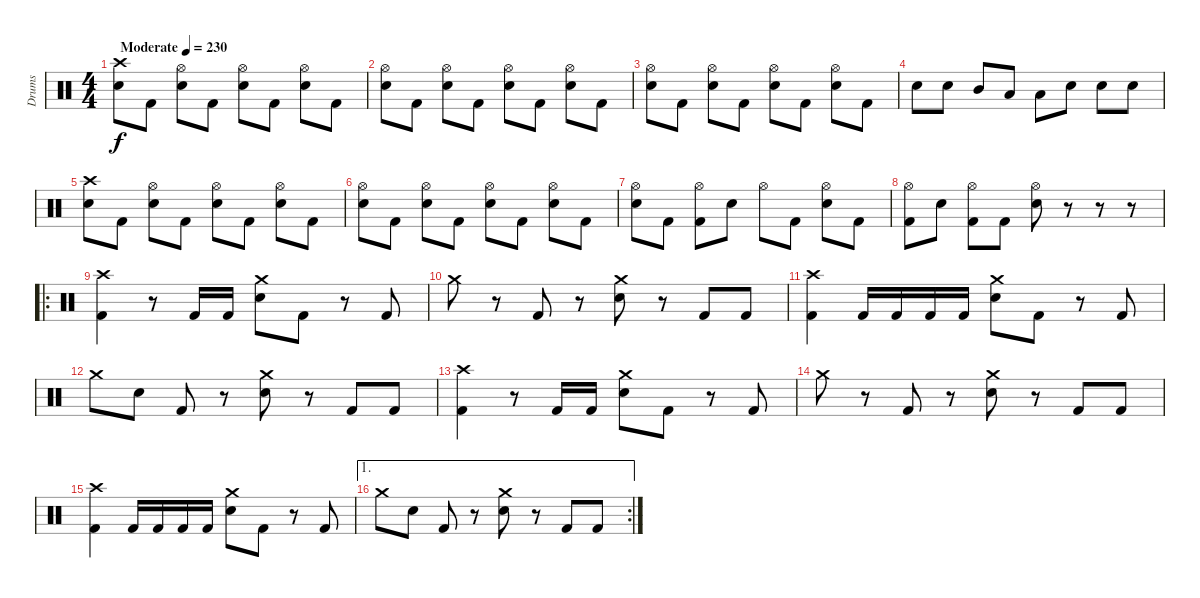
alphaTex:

\track ("Drums" "Drums") {instrument percussion}
\staff {score}
\articulation defaults
\ts (4 4)
\tempo (230 "Moderate")
\clef neutral
\ks c
("Electric Snare (hit)" "Crash high (hit)").8{dy f} "Kick (hit) 2".8 ("Electric Snare (hit)" "Hi-Hat (open)").8 "Kick (hit) 2".8 ("Electric Snare (hit)" "Hi-Hat (open)").8 "Kick (hit) 2".8 ("Electric Snare (hit)" "Hi-Hat (open)").8 "Kick (hit) 2".8 |
("Electric Snare (hit)" "Hi-Hat (open)").8 "Kick (hit) 2".8 ("Electric Snare (hit)" "Hi-Hat (open)").8 "Kick (hit) 2".8 ("Electric Snare (hit)" "Hi-Hat (open)").8 "Kick (hit) 2".8 ("Electric Snare (hit)" "Hi-Hat (open)").8 "Kick (hit) 2".8 |
("Electric Snare (hit)" "Hi-Hat (open)").8 "Kick (hit) 2".8 ("Electric Snare (hit)" "Hi-Hat (open)").8 "Kick (hit) 2".8 ("Electric Snare (hit)" "Hi-Hat (open)").8 "Kick (hit) 2".8 ("Electric Snare (hit)" "Hi-Hat (open)").8 "Kick (hit) 2".8 |
"Electric Snare (hit)".8 "Electric Snare (hit)".8 "Mid Tom (hit)".8 "Low Tom (hit)".8 "Low Tom (hit)".8 "Electric Snare (hit)".8 "Electric Snare (hit)".8 "Electric Snare (hit)".8 |
("Electric Snare (hit)" "Crash high (hit)").8 "Kick (hit) 2".8 ("Electric Snare (hit)" "Hi-Hat (open)").8 "Kick (hit) 2".8 ("Electric Snare (hit)" "Hi-Hat (open)").8 "Kick (hit) 2".8 ("Electric Snare (hit)" "Hi-Hat (open)").8 "Kick (hit) 2".8 |
("Electric Snare (hit)" "Hi-Hat (open)").8 "Kick (hit) 2".8 ("Electric Snare (hit)" "Hi-Hat (open)").8 "Kick (hit) 2".8 ("Electric Snare (hit)" "Hi-Hat (open)").8 "Kick (hit) 2".8 ("Electric Snare (hit)" "Hi-Hat (open)").8 "Kick (hit) 2".8 |
("Electric Snare (hit)" "Hi-Hat (open)").8 "Kick (hit) 2".8 ("Kick (hit) 2" "Hi-Hat (open)").8 "Electric Snare (hit)".8 "Hi-Hat (open)".8 "Kick (hit) 2".8 ("Electric Snare (hit)" "Hi-Hat (open)").8 "Kick (hit) 2".8 |
("Kick (hit) 2" "Hi-Hat (open)").8 "Electric Snare (hit)".8 ("Kick (hit) 2" "Hi-Hat (open)").8 "Kick (hit) 2".8 ("Electric Snare (hit)" "Hi-Hat (open)").8 r.8 r.8 r.8 |
\ro
("Kick (hit) 2" "Crash high (hit)").4 r.8 "Kick (hit) 2".16 "Kick (hit) 2".16 ("Electric Snare (hit)" "Crash medium (hit)").8 "Kick (hit) 2".8 r.8 "Kick (hit) 2".8 |
"Crash medium (hit)".8 r.8 "Kick (hit) 2".8 r.8 ("Electric Snare (hit)" "Crash medium (hit)").8 r.8 "Kick (hit) 2".8 "Kick (hit) 2".8 |
("Kick (hit) 2" "Crash high (hit)").4 "Kick (hit) 2".16 "Kick (hit) 2".16 "Kick (hit) 2".16 "Kick (hit) 2".16 ("Electric Snare (hit)" "Crash medium (hit)").8 "Kick (hit) 2".8 r.8 "Kick (hit) 2".8 |
"Crash medium (hit)".8 "Electric Snare (hit)".8 "Kick (hit) 2".8 r.8 ("Electric Snare (hit)" "Crash medium (hit)").8 r.8 "Kick (hit) 2".8 "Kick (hit) 2".8 |
("Kick (hit) 2" "Crash high (hit)").4 r.8 "Kick (hit) 2".16 "Kick (hit) 2".16 ("Electric Snare (hit)" "Crash medium (hit)").8 "Kick (hit) 2".8 r.8 "Kick (hit) 2".8 |
"Crash medium (hit)".8 r.8 "Kick (hit) 2".8 r.8 ("Electric Snare (hit)" "Crash medium (hit)").8 r.8 "Kick (hit) 2".8 "Kick (hit) 2".8 |
("Kick (hit) 2" "Crash high (hit)").4 "Kick (hit) 2".16 "Kick (hit) 2".16 "Kick (hit) 2".16 "Kick (hit) 2".16 ("Electric Snare (hit)" "Crash medium (hit)").8 "Kick (hit) 2".8 r.8 "Kick (hit) 2".8 |
\ae 1
\rc 2 "Crash medium (hit)".8 "Electric Snare (hit)".8 "Kick (hit) 2".8
r.8 ("Electric Snare (hit)" "Crash medium (hit)").8 r.8 "Kick (hit) 2".8 "Kick (hit) 2".8
